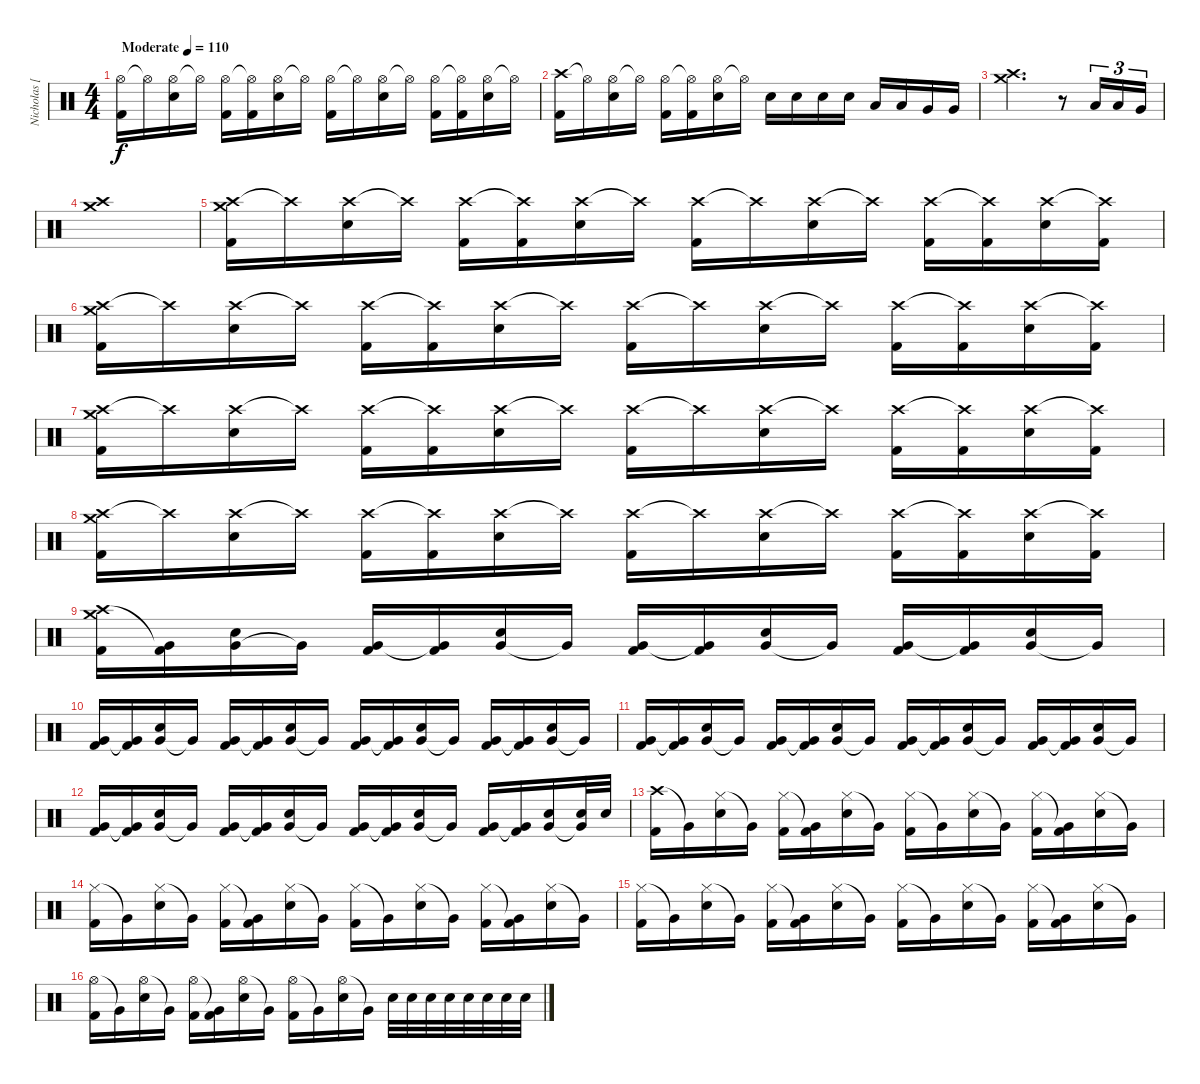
\track ("Nicholas [Drums]" "Nicholas [") {instrument percussion}
\staff {score}
\articulation defaults
\ts (4 4)
\tempo (110 "Moderate")
\clef neutral
\ks c
("Hi-Hat (open)" "Kick (hit) 2").16{dy f} "Hi-Hat (open)"{t}.16 ("Hi-Hat (open)" "Snare (hit) 2").16 "Hi-Hat (open)"{t}.16 ("Hi-Hat (open)" "Kick (hit) 2").16 ("Hi-Hat (open)"{t} "Kick (hit) 2").16 ("Hi-Hat (open)" "Snare (hit) 2").16 "Hi-Hat (open)"{t}.16 ("Hi-Hat (open)" "Kick (hit) 2").16 "Hi-Hat (open)"{t}.16 ("Hi-Hat (open)" "Snare (hit) 2").16 "Hi-Hat (open)"{t}.16 ("Hi-Hat (open)" "Kick (hit) 2").16 ("Hi-Hat (open)"{t} "Kick (hit) 2").16 ("Hi-Hat (open)" "Snare (hit) 2").16 "Hi-Hat (open)"{t}.16 |
("Crash high (hit)" "Kick (hit) 2").16 "Hi-Hat (open)"{t}.16 ("Hi-Hat (open)" "Snare (hit) 2").16 "Hi-Hat (open)"{t}.16 ("Hi-Hat (open)" "Kick (hit) 2").16 ("Hi-Hat (open)"{t} "Kick (hit) 2").16 ("Hi-Hat (open)" "Snare (hit) 2").16 "Hi-Hat (open)"{t}.16 "Snare (hit) 2".16 "Snare (hit) 2".16 "Snare (hit) 2".16 "Snare (hit) 2".16 "Low Tom (hit)".16 "Low Tom (hit)".16 "Very Low Tom (hit)".16 "Very Low Tom (hit)".16 |
("Crash high (hit)" "Crash medium (hit)").2{d} r.8 "Low Tom (hit)".16{tu (3 2)} "Low Tom (hit)".16{tu (3 2)} "Very Low Tom (hit)".16{tu (3 2)} |
("Crash high (hit)" "Crash medium (hit)").1 |
("Crash high (hit)" "Crash medium (hit)" "Kick (hit) 2").16 "Crash high (hit)"{t}.16 ("Crash high (hit)" "Snare (hit) 2").16 "Crash high (hit)"{t}.16 ("Crash high (hit)" "Kick (hit) 2").16 ("Crash high (hit)"{t} "Kick (hit) 2").16 ("Crash high (hit)" "Snare (hit) 2").16 "Crash high (hit)"{t}.16 ("Crash high (hit)" "Kick (hit) 2").16 "Crash high (hit)"{t}.16 ("Crash high (hit)" "Snare (hit) 2").16 "Crash high (hit)"{t}.16 ("Crash high (hit)" "Kick (hit) 2").16 ("Crash high (hit)"{t} "Kick (hit) 2").16 ("Crash high (hit)" "Snare (hit) 2").16 ("Crash high (hit)"{t} "Kick (hit) 2").16 |
("Crash high (hit)" "Crash medium (hit)" "Kick (hit) 2").16 "Crash high (hit)"{t}.16 ("Crash high (hit)" "Snare (hit) 2").16 "Crash high (hit)"{t}.16 ("Crash high (hit)" "Kick (hit) 2").16 ("Crash high (hit)"{t} "Kick (hit) 2").16 ("Crash high (hit)" "Snare (hit) 2").16 "Crash high (hit)"{t}.16 ("Crash high (hit)" "Kick (hit) 2").16 "Crash high (hit)"{t}.16 ("Crash high (hit)" "Snare (hit) 2").16 "Crash high (hit)"{t}.16 ("Crash high (hit)" "Kick (hit) 2").16 ("Crash high (hit)"{t} "Kick (hit) 2").16 ("Crash high (hit)" "Snare (hit) 2").16 ("Crash high (hit)"{t} "Kick (hit) 2").16 |
("Crash high (hit)" "Crash medium (hit)" "Kick (hit) 2").16 "Crash high (hit)"{t}.16 ("Crash high (hit)" "Snare (hit) 2").16 "Crash high (hit)"{t}.16 ("Crash high (hit)" "Kick (hit) 2").16 ("Crash high (hit)"{t} "Kick (hit) 2").16 ("Crash high (hit)" "Snare (hit) 2").16 "Crash high (hit)"{t}.16 ("Crash high (hit)" "Kick (hit) 2").16 "Crash high (hit)"{t}.16 ("Crash high (hit)" "Snare (hit) 2").16 "Crash high (hit)"{t}.16 ("Crash high (hit)" "Kick (hit) 2").16 ("Crash high (hit)"{t} "Kick (hit) 2").16 ("Crash high (hit)" "Snare (hit) 2").16 ("Crash high (hit)"{t} "Kick (hit) 2").16 |
("Crash high (hit)" "Crash medium (hit)" "Kick (hit) 2").16 "Crash high (hit)"{t}.16 ("Crash high (hit)" "Snare (hit) 2").16 "Crash high (hit)"{t}.16 ("Crash high (hit)" "Kick (hit) 2").16 ("Crash high (hit)"{t} "Kick (hit) 2").16 ("Crash high (hit)" "Snare (hit) 2").16 "Crash high (hit)"{t}.16 ("Crash high (hit)" "Kick (hit) 2").16 "Crash high (hit)"{t}.16 ("Crash high (hit)" "Snare (hit) 2").16 "Crash high (hit)"{t}.16 ("Crash high (hit)" "Kick (hit) 2").16 ("Crash high (hit)"{t} "Kick (hit) 2").16 ("Crash high (hit)" "Snare (hit) 2").16 ("Crash high (hit)"{t} "Kick (hit) 2").16 |
("Crash high (hit)" "Crash medium (hit)" "Kick (hit) 2").16 ("Very Low Tom (hit)"{t} "Kick (hit) 2").16 ("Very Low Tom (hit)" "Snare (hit) 2").16 "Very Low Tom (hit)"{t}.16 ("Very Low Tom (hit)" "Kick (hit) 2").16 ("Very Low Tom (hit)"{t} "Kick (hit) 2").16 ("Very Low Tom (hit)" "Snare (hit) 2").16 "Very Low Tom (hit)"{t}.16 ("Very Low Tom (hit)" "Kick (hit) 2").16 ("Very Low Tom (hit)"{t} "Kick (hit) 2").16 ("Very Low Tom (hit)" "Snare (hit) 2").16 "Very Low Tom (hit)"{t}.16 ("Very Low Tom (hit)" "Kick (hit) 2").16 ("Very Low Tom (hit)"{t} "Kick (hit) 2").16 ("Very Low Tom (hit)" "Snare (hit) 2").16 "Very Low Tom (hit)"{t}.16 |
("Very Low Tom (hit)" "Kick (hit) 2").16 ("Very Low Tom (hit)"{t} "Kick (hit) 2").16 ("Very Low Tom (hit)" "Snare (hit) 2").16 "Very Low Tom (hit)"{t}.16 ("Very Low Tom (hit)" "Kick (hit) 2").16 ("Very Low Tom (hit)"{t} "Kick (hit) 2").16 ("Very Low Tom (hit)" "Snare (hit) 2").16 "Very Low Tom (hit)"{t}.16 ("Very Low Tom (hit)" "Kick (hit) 2").16 ("Very Low Tom (hit)"{t} "Kick (hit) 2").16 ("Very Low Tom (hit)" "Snare (hit) 2").16 "Very Low Tom (hit)"{t}.16 ("Very Low Tom (hit)" "Kick (hit) 2").16 ("Very Low Tom (hit)"{t} "Kick (hit) 2").16 ("Very Low Tom (hit)" "Snare (hit) 2").16 "Very Low Tom (hit)"{t}.16 |
("Very Low Tom (hit)" "Kick (hit) 2").16 ("Very Low Tom (hit)"{t} "Kick (hit) 2").16 ("Very Low Tom (hit)" "Snare (hit) 2").16 "Very Low Tom (hit)"{t}.16 ("Very Low Tom (hit)" "Kick (hit) 2").16 ("Very Low Tom (hit)"{t} "Kick (hit) 2").16 ("Very Low Tom (hit)" "Snare (hit) 2").16 "Very Low Tom (hit)"{t}.16 ("Very Low Tom (hit)" "Kick (hit) 2").16 ("Very Low Tom (hit)"{t} "Kick (hit) 2").16 ("Very Low Tom (hit)" "Snare (hit) 2").16 "Very Low Tom (hit)"{t}.16 ("Very Low Tom (hit)" "Kick (hit) 2").16 ("Very Low Tom (hit)"{t} "Kick (hit) 2").16 ("Very Low Tom (hit)" "Snare (hit) 2").16 "Very Low Tom (hit)"{t}.16 |
("Very Low Tom (hit)" "Kick (hit) 2").16 ("Very Low Tom (hit)"{t} "Kick (hit) 2").16 ("Very Low Tom (hit)" "Snare (hit) 2").16 "Very Low Tom (hit)"{t}.16 ("Very Low Tom (hit)" "Kick (hit) 2").16 ("Very Low Tom (hit)"{t} "Kick (hit) 2").16 ("Very Low Tom (hit)" "Snare (hit) 2").16 "Very Low Tom (hit)"{t}.16 ("Very Low Tom (hit)" "Kick (hit) 2").16 ("Very Low Tom (hit)"{t} "Kick (hit) 2").16 ("Very Low Tom (hit)" "Snare (hit) 2").16 "Very Low Tom (hit)"{t}.16 ("Very Low Tom (hit)" "Kick (hit) 2").16 ("Very Low Tom (hit)"{t} "Kick (hit) 2").16 ("Very Low Tom (hit)" "Snare (hit) 2").16 ("Very Low Tom (hit)"{t} "Snare (hit) 2").32 "Snare (hit) 2".32 |
("Crash high (hit)" "Kick (hit) 2").16 "Very Low Tom (hit)"{t}.16 ("Hi-Hat (closed)" "Snare (hit) 2").16 "Very Low Tom (hit)"{t}.16 ("Hi-Hat (closed)" "Kick (hit) 2").16 ("Very Low Tom (hit)"{t} "Kick (hit) 2").16 ("Hi-Hat (closed)" "Snare (hit) 2").16 "Very Low Tom (hit)"{t}.16 ("Hi-Hat (closed)" "Kick (hit) 2").16 "Very Low Tom (hit)"{t}.16 ("Hi-Hat (closed)" "Snare (hit) 2").16 "Very Low Tom (hit)"{t}.16 ("Hi-Hat (closed)" "Kick (hit) 2").16 ("Very Low Tom (hit)"{t} "Kick (hit) 2").16 ("Hi-Hat (closed)" "Snare (hit) 2").16 "Very Low Tom (hit)"{t}.16 |
("Hi-Hat (closed)" "Kick (hit) 2").16 "Very Low Tom (hit)"{t}.16 ("Hi-Hat (closed)" "Snare (hit) 2").16 "Very Low Tom (hit)"{t}.16 ("Hi-Hat (closed)" "Kick (hit) 2").16 ("Very Low Tom (hit)"{t} "Kick (hit) 2").16 ("Hi-Hat (closed)" "Snare (hit) 2").16 "Very Low Tom (hit)"{t}.16 ("Hi-Hat (closed)" "Kick (hit) 2").16 "Very Low Tom (hit)"{t}.16 ("Hi-Hat (closed)" "Snare (hit) 2").16 "Very Low Tom (hit)"{t}.16 ("Hi-Hat (closed)" "Kick (hit) 2").16 ("Very Low Tom (hit)"{t} "Kick (hit) 2").16 ("Hi-Hat (closed)" "Snare (hit) 2").16 "Very Low Tom (hit)"{t}.16 |
("Hi-Hat (closed)" "Kick (hit) 2").16 "Very Low Tom (hit)"{t}.16 ("Hi-Hat (closed)" "Snare (hit) 2").16 "Very Low Tom (hit)"{t}.16 ("Hi-Hat (closed)" "Kick (hit) 2").16 ("Very Low Tom (hit)"{t} "Kick (hit) 2").16 ("Hi-Hat (closed)" "Snare (hit) 2").16 "Very Low Tom (hit)"{t}.16 ("Hi-Hat (closed)" "Kick (hit) 2").16 "Very Low Tom (hit)"{t}.16 ("Hi-Hat (closed)" "Snare (hit) 2").16 "Very Low Tom (hit)"{t}.16 ("Hi-Hat (closed)" "Kick (hit) 2").16 ("Very Low Tom (hit)"{t} "Kick (hit) 2").16 ("Hi-Hat (closed)" "Snare (hit) 2").16 "Very Low Tom (hit)"{t}.16 |
("Hi-Hat (open)" "Kick (hit) 2").16 "Very Low Tom (hit)"{t}.16 ("Hi-Hat (open)" "Snare (hit) 2").16 "Very Low Tom (hit)"{t}.16 ("Hi-Hat (open)" "Kick (hit) 2").16 ("Very Low Tom (hit)"{t} "Kick (hit) 2").16 ("Hi-Hat (open)" "Snare (hit) 2").16 "Very Low Tom (hit)"{t}.16 ("Hi-Hat (open)" "Kick (hit) 2").16 "Very Low Tom (hit)"{t}.16 ("Hi-Hat (open)" "Snare (hit) 2").16 "Very Low Tom (hit)"{t}.16 "Snare (hit) 2".32 "Snare (hit) 2".32 "Snare (hit) 2".32 "Snare (hit) 2".32 "Snare (hit) 2".32 "Snare (hit) 2".32 "Snare (hit) 2".32 "Snare (hit) 2".32
